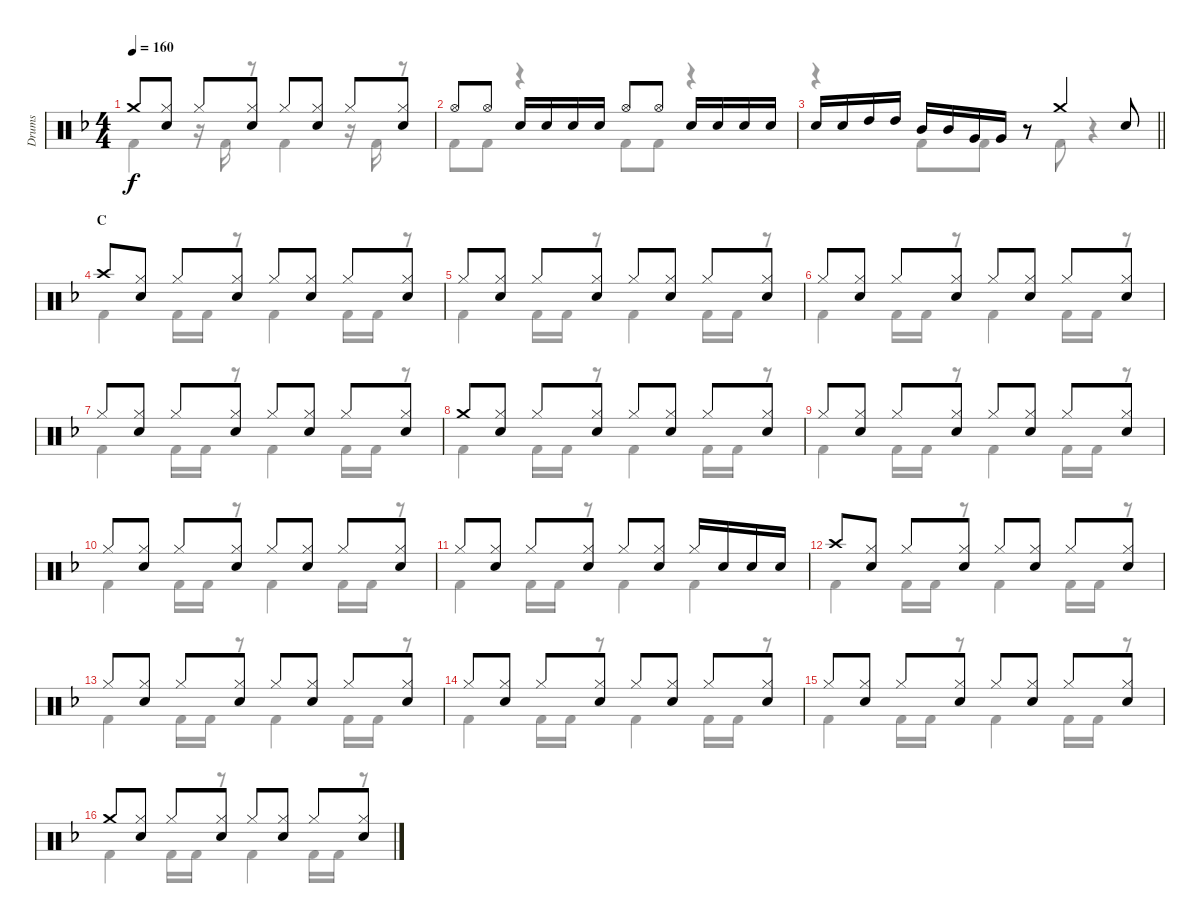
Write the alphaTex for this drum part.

\track ("Drums" "Drums") {instrument percussion}
\staff {score}
\articulation defaults
\voice
\ts (4 4)
\tempo 160
\clef neutral
\ks f "Crash medium (hit)".8{dy f}
("Hi-Hat (closed)" "Snare (hit) 2").8 "Hi-Hat (closed)".8 ("Hi-Hat (closed)" "Snare (hit) 2").8 "Hi-Hat (closed)".8 ("Hi-Hat (closed)" "Snare (hit) 2").8 "Hi-Hat (closed)".8 ("Hi-Hat (closed)" "Snare (hit) 2").8 |
"Hi-Hat (open)".8 "Hi-Hat (open)".8 "Snare (hit) 2".16 "Snare (hit) 2".16 "Snare (hit) 2".16 "Snare (hit) 2".16 "Hi-Hat (open)".8 "Hi-Hat (open)".8 "Snare (hit) 2".16 "Snare (hit) 2".16 "Snare (hit) 2".16 "Snare (hit) 2".16 |
\barLineRight lightlight "Snare (hit) 2".16 "Snare (hit) 2".16 "High Tom (hit)".16 "High Tom (hit)".16 "Mid Tom (hit)".16 "Mid Tom (hit)".16 "Very Low Tom (hit)".16 "Very Low Tom (hit)".16
r.8 "Crash medium (hit)".4 "Snare (hit) 2".8 |
\section ("" "C")
"Crash high (hit)".8 ("Hi-Hat (closed)" "Snare (hit) 2").8 "Hi-Hat (closed)".8 ("Hi-Hat (closed)" "Snare (hit) 2").8 "Hi-Hat (closed)".8 ("Hi-Hat (closed)" "Snare (hit) 2").8 "Hi-Hat (closed)".8 ("Hi-Hat (closed)" "Snare (hit) 2").8 |
"Hi-Hat (closed)".8 ("Hi-Hat (closed)" "Snare (hit) 2").8 "Hi-Hat (closed)".8 ("Hi-Hat (closed)" "Snare (hit) 2").8 "Hi-Hat (closed)".8 ("Hi-Hat (closed)" "Snare (hit) 2").8 "Hi-Hat (closed)".8 ("Hi-Hat (closed)" "Snare (hit) 2").8 |
"Hi-Hat (closed)".8 ("Hi-Hat (closed)" "Snare (hit) 2").8 "Hi-Hat (closed)".8 ("Hi-Hat (closed)" "Snare (hit) 2").8 "Hi-Hat (closed)".8 ("Hi-Hat (closed)" "Snare (hit) 2").8 "Hi-Hat (closed)".8 ("Hi-Hat (closed)" "Snare (hit) 2").8 |
"Hi-Hat (closed)".8 ("Hi-Hat (closed)" "Snare (hit) 2").8 "Hi-Hat (closed)".8 ("Hi-Hat (closed)" "Snare (hit) 2").8 "Hi-Hat (closed)".8 ("Hi-Hat (closed)" "Snare (hit) 2").8 "Hi-Hat (closed)".8 ("Hi-Hat (closed)" "Snare (hit) 2").8 |
"Crash medium (hit)".8 ("Hi-Hat (closed)" "Snare (hit) 2").8 "Hi-Hat (closed)".8 ("Hi-Hat (closed)" "Snare (hit) 2").8 "Hi-Hat (closed)".8 ("Hi-Hat (closed)" "Snare (hit) 2").8 "Hi-Hat (closed)".8 ("Hi-Hat (closed)" "Snare (hit) 2").8 |
"Hi-Hat (closed)".8 ("Hi-Hat (closed)" "Snare (hit) 2").8 "Hi-Hat (closed)".8 ("Hi-Hat (closed)" "Snare (hit) 2").8 "Hi-Hat (closed)".8 ("Hi-Hat (closed)" "Snare (hit) 2").8 "Hi-Hat (closed)".8 ("Hi-Hat (closed)" "Snare (hit) 2").8 |
"Hi-Hat (closed)".8 ("Hi-Hat (closed)" "Snare (hit) 2").8 "Hi-Hat (closed)".8 ("Hi-Hat (closed)" "Snare (hit) 2").8 "Hi-Hat (closed)".8 ("Hi-Hat (closed)" "Snare (hit) 2").8 "Hi-Hat (closed)".8 ("Hi-Hat (closed)" "Snare (hit) 2").8 |
"Hi-Hat (closed)".8 ("Hi-Hat (closed)" "Snare (hit) 2").8 "Hi-Hat (closed)".8 ("Hi-Hat (closed)" "Snare (hit) 2").8 "Hi-Hat (closed)".8 ("Hi-Hat (closed)" "Snare (hit) 2").8 "Hi-Hat (closed)".16 "Snare (hit) 2".16 "Snare (hit) 2".16 "Snare (hit) 2".16 |
"Crash high (hit)".8 ("Hi-Hat (closed)" "Snare (hit) 2").8 "Hi-Hat (closed)".8 ("Hi-Hat (closed)" "Snare (hit) 2").8 "Hi-Hat (closed)".8 ("Hi-Hat (closed)" "Snare (hit) 2").8 "Hi-Hat (closed)".8 ("Hi-Hat (closed)" "Snare (hit) 2").8 |
"Hi-Hat (closed)".8 ("Hi-Hat (closed)" "Snare (hit) 2").8 "Hi-Hat (closed)".8 ("Hi-Hat (closed)" "Snare (hit) 2").8 "Hi-Hat (closed)".8 ("Hi-Hat (closed)" "Snare (hit) 2").8 "Hi-Hat (closed)".8 ("Hi-Hat (closed)" "Snare (hit) 2").8 |
"Hi-Hat (closed)".8 ("Hi-Hat (closed)" "Snare (hit) 2").8 "Hi-Hat (closed)".8 ("Hi-Hat (closed)" "Snare (hit) 2").8 "Hi-Hat (closed)".8 ("Hi-Hat (closed)" "Snare (hit) 2").8 "Hi-Hat (closed)".8 ("Hi-Hat (closed)" "Snare (hit) 2").8 |
"Hi-Hat (closed)".8 ("Hi-Hat (closed)" "Snare (hit) 2").8 "Hi-Hat (closed)".8 ("Hi-Hat (closed)" "Snare (hit) 2").8 "Hi-Hat (closed)".8 ("Hi-Hat (closed)" "Snare (hit) 2").8 "Hi-Hat (closed)".8 ("Hi-Hat (closed)" "Snare (hit) 2").8 |
"Crash medium (hit)".8 ("Hi-Hat (closed)" "Snare (hit) 2").8 "Hi-Hat (closed)".8 ("Hi-Hat (closed)" "Snare (hit) 2").8 "Hi-Hat (closed)".8 ("Hi-Hat (closed)" "Snare (hit) 2").8 "Hi-Hat (closed)".8 ("Hi-Hat (closed)" "Snare (hit) 2").8
\voice
\clef neutral
\ottava regular
\simile none
\ks f "Kick (hit) 2".4{dy f}
r.16 "Kick (hit) 2".16 r.8 "Kick (hit) 2".4 r.16 "Kick (hit) 2".16 r.8 |
"Kick (hit) 2".8 "Kick (hit) 2".8 r.4 "Kick (hit) 2".8 "Kick (hit) 2".8 r.4 |
\barLineRight lightlight
r.4 "Kick (hit) 2".8 "Kick (hit) 2".8 r.8 "Kick (hit) 2".8 r.4 |
"Kick (hit) 2".4 "Kick (hit) 2".16 "Kick (hit) 2".16 r.8 "Kick (hit) 2".4 "Kick (hit) 2".16 "Kick (hit) 2".16 r.8 |
"Kick (hit) 2".4 "Kick (hit) 2".16 "Kick (hit) 2".16 r.8 "Kick (hit) 2".4 "Kick (hit) 2".16 "Kick (hit) 2".16 r.8 |
"Kick (hit) 2".4 "Kick (hit) 2".16 "Kick (hit) 2".16 r.8 "Kick (hit) 2".4 "Kick (hit) 2".16 "Kick (hit) 2".16 r.8 |
"Kick (hit) 2".4 "Kick (hit) 2".16 "Kick (hit) 2".16 r.8 "Kick (hit) 2".4 "Kick (hit) 2".16 "Kick (hit) 2".16 r.8 |
"Kick (hit) 2".4 "Kick (hit) 2".16 "Kick (hit) 2".16 r.8 "Kick (hit) 2".4 "Kick (hit) 2".16 "Kick (hit) 2".16 r.8 |
"Kick (hit) 2".4 "Kick (hit) 2".16 "Kick (hit) 2".16 r.8 "Kick (hit) 2".4 "Kick (hit) 2".16 "Kick (hit) 2".16 r.8 |
"Kick (hit) 2".4 "Kick (hit) 2".16 "Kick (hit) 2".16 r.8 "Kick (hit) 2".4 "Kick (hit) 2".16 "Kick (hit) 2".16 r.8 |
"Kick (hit) 2".4 "Kick (hit) 2".16 "Kick (hit) 2".16 r.8 "Kick (hit) 2".4 "Kick (hit) 2".4 |
"Kick (hit) 2".4 "Kick (hit) 2".16 "Kick (hit) 2".16 r.8 "Kick (hit) 2".4 "Kick (hit) 2".16 "Kick (hit) 2".16 r.8 |
"Kick (hit) 2".4 "Kick (hit) 2".16 "Kick (hit) 2".16 r.8 "Kick (hit) 2".4 "Kick (hit) 2".16 "Kick (hit) 2".16 r.8 |
"Kick (hit) 2".4 "Kick (hit) 2".16 "Kick (hit) 2".16 r.8 "Kick (hit) 2".4 "Kick (hit) 2".16 "Kick (hit) 2".16 r.8 |
"Kick (hit) 2".4 "Kick (hit) 2".16 "Kick (hit) 2".16 r.8 "Kick (hit) 2".4 "Kick (hit) 2".16 "Kick (hit) 2".16 r.8 |
"Kick (hit) 2".4 "Kick (hit) 2".16 "Kick (hit) 2".16 r.8 "Kick (hit) 2".4 "Kick (hit) 2".16 "Kick (hit) 2".16 r.8
